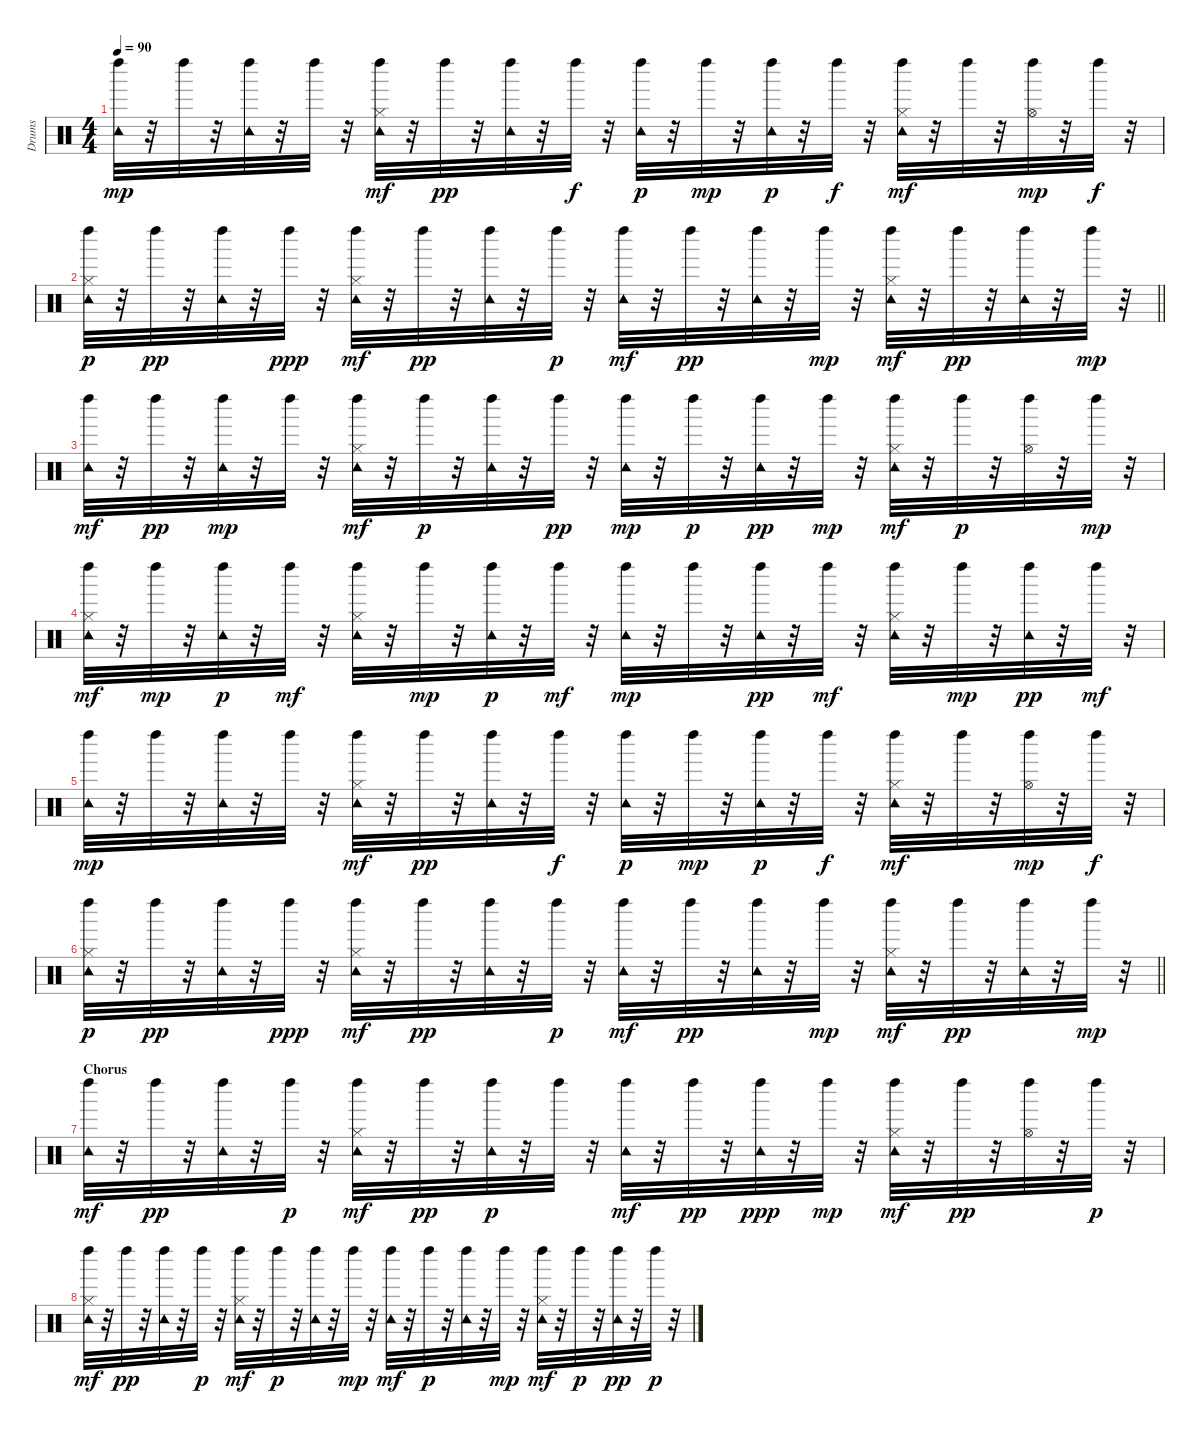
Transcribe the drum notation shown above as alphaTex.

\track ("Drums" "Drums") {instrument percussion}
\staff {score}
\articulation defaults
\ts (4 4)
\tempo 90
\clef neutral
\ks c
("Tambourine (hit)" "Left Maraca (hit)").32{dy mp} r.32 "Left Maraca (hit)".32 r.32 ("Tambourine (hit)" "Left Maraca (hit)").32 r.32 "Left Maraca (hit)".32 r.32 ("Hi-Hat (closed)" "Tambourine (hit)" "Left Maraca (hit)").32{dy mf} r.32 "Left Maraca (hit)".32{dy pp} r.32 ("Tambourine (hit)" "Left Maraca (hit)").32 r.32 "Left Maraca (hit)".32{dy f} r.32 ("Tambourine (hit)" "Left Maraca (hit)").32{dy p} r.32 "Left Maraca (hit)".32{dy mp} r.32 ("Tambourine (hit)" "Left Maraca (hit)").32{dy p} r.32 "Left Maraca (hit)".32{dy f} r.32 ("Hi-Hat (closed)" "Tambourine (hit)" "Left Maraca (hit)").32{dy mf} r.32 "Left Maraca (hit)".32 r.32 ("Hi-Hat (open)" "Left Maraca (hit)").32{dy mp} r.32 "Left Maraca (hit)".32{dy f} r.32 |
\barLineRight lightlight
("Hi-Hat (closed)" "Tambourine (hit)" "Left Maraca (hit)").32{dy p} r.32 "Left Maraca (hit)".32{dy pp} r.32 ("Tambourine (hit)" "Left Maraca (hit)").32 r.32 "Left Maraca (hit)".32{dy ppp} r.32 ("Hi-Hat (closed)" "Tambourine (hit)" "Left Maraca (hit)").32{dy mf} r.32 "Left Maraca (hit)".32{dy pp} r.32 ("Tambourine (hit)" "Left Maraca (hit)").32 r.32 "Left Maraca (hit)".32{dy p} r.32 ("Tambourine (hit)" "Left Maraca (hit)").32{dy mf} r.32 "Left Maraca (hit)".32{dy pp} r.32 ("Tambourine (hit)" "Left Maraca (hit)").32 r.32 "Left Maraca (hit)".32{dy mp} r.32 ("Hi-Hat (closed)" "Tambourine (hit)" "Left Maraca (hit)").32{dy mf} r.32 "Left Maraca (hit)".32{dy pp} r.32 ("Tambourine (hit)" "Left Maraca (hit)").32 r.32 "Left Maraca (hit)".32{dy mp} r.32 |
("Tambourine (hit)" "Left Maraca (hit)").32{dy mf} r.32 "Left Maraca (hit)".32{dy pp} r.32 ("Tambourine (hit)" "Left Maraca (hit)").32{dy mp} r.32 "Left Maraca (hit)".32 r.32 ("Hi-Hat (closed)" "Tambourine (hit)" "Left Maraca (hit)").32{dy mf} r.32 "Left Maraca (hit)".32{dy p} r.32 ("Tambourine (hit)" "Left Maraca (hit)").32 r.32 "Left Maraca (hit)".32{dy pp} r.32 ("Tambourine (hit)" "Left Maraca (hit)").32{dy mp} r.32 "Left Maraca (hit)".32{dy p} r.32 ("Tambourine (hit)" "Left Maraca (hit)").32{dy pp} r.32 "Left Maraca (hit)".32{dy mp} r.32 ("Hi-Hat (closed)" "Tambourine (hit)" "Left Maraca (hit)").32{dy mf} r.32 "Left Maraca (hit)".32{dy p} r.32 ("Hi-Hat (open)" "Left Maraca (hit)").32 r.32 "Left Maraca (hit)".32{dy mp} r.32 |
("Hi-Hat (closed)" "Tambourine (hit)" "Left Maraca (hit)").32{dy mf} r.32 "Left Maraca (hit)".32{dy mp} r.32 ("Tambourine (hit)" "Left Maraca (hit)").32{dy p} r.32 "Left Maraca (hit)".32{dy mf} r.32 ("Hi-Hat (closed)" "Tambourine (hit)" "Left Maraca (hit)").32 r.32 "Left Maraca (hit)".32{dy mp} r.32 ("Tambourine (hit)" "Left Maraca (hit)").32{dy p} r.32 "Left Maraca (hit)".32{dy mf} r.32 ("Tambourine (hit)" "Left Maraca (hit)").32{dy mp} r.32 "Left Maraca (hit)".32 r.32 ("Tambourine (hit)" "Left Maraca (hit)").32{dy pp} r.32 "Left Maraca (hit)".32{dy mf} r.32 ("Hi-Hat (closed)" "Tambourine (hit)" "Left Maraca (hit)").32 r.32 "Left Maraca (hit)".32{dy mp} r.32 ("Tambourine (hit)" "Left Maraca (hit)").32{dy pp} r.32 "Left Maraca (hit)".32{dy mf} r.32 |
("Tambourine (hit)" "Left Maraca (hit)").32{dy mp} r.32 "Left Maraca (hit)".32 r.32 ("Tambourine (hit)" "Left Maraca (hit)").32 r.32 "Left Maraca (hit)".32 r.32 ("Hi-Hat (closed)" "Tambourine (hit)" "Left Maraca (hit)").32{dy mf} r.32 "Left Maraca (hit)".32{dy pp} r.32 ("Tambourine (hit)" "Left Maraca (hit)").32 r.32 "Left Maraca (hit)".32{dy f} r.32 ("Tambourine (hit)" "Left Maraca (hit)").32{dy p} r.32 "Left Maraca (hit)".32{dy mp} r.32 ("Tambourine (hit)" "Left Maraca (hit)").32{dy p} r.32 "Left Maraca (hit)".32{dy f} r.32 ("Hi-Hat (closed)" "Tambourine (hit)" "Left Maraca (hit)").32{dy mf} r.32 "Left Maraca (hit)".32 r.32 ("Hi-Hat (open)" "Left Maraca (hit)").32{dy mp} r.32 "Left Maraca (hit)".32{dy f} r.32 |
\barLineRight lightlight
("Hi-Hat (closed)" "Tambourine (hit)" "Left Maraca (hit)").32{dy p} r.32 "Left Maraca (hit)".32{dy pp} r.32 ("Tambourine (hit)" "Left Maraca (hit)").32 r.32 "Left Maraca (hit)".32{dy ppp} r.32 ("Hi-Hat (closed)" "Tambourine (hit)" "Left Maraca (hit)").32{dy mf} r.32 "Left Maraca (hit)".32{dy pp} r.32 ("Tambourine (hit)" "Left Maraca (hit)").32 r.32 "Left Maraca (hit)".32{dy p} r.32 ("Tambourine (hit)" "Left Maraca (hit)").32{dy mf} r.32 "Left Maraca (hit)".32{dy pp} r.32 ("Tambourine (hit)" "Left Maraca (hit)").32 r.32 "Left Maraca (hit)".32{dy mp} r.32 ("Hi-Hat (closed)" "Tambourine (hit)" "Left Maraca (hit)").32{dy mf} r.32 "Left Maraca (hit)".32{dy pp} r.32 ("Tambourine (hit)" "Left Maraca (hit)").32 r.32 "Left Maraca (hit)".32{dy mp} r.32 |
\section ("" "Chorus")
("Tambourine (hit)" "Left Maraca (hit)").32{dy mf} r.32 "Left Maraca (hit)".32{dy pp} r.32 ("Tambourine (hit)" "Left Maraca (hit)").32 r.32 "Left Maraca (hit)".32{dy p} r.32 ("Hi-Hat (closed)" "Tambourine (hit)" "Left Maraca (hit)").32{dy mf} r.32 "Left Maraca (hit)".32{dy pp} r.32 ("Tambourine (hit)" "Left Maraca (hit)").32{dy p} r.32 "Left Maraca (hit)".32 r.32 ("Tambourine (hit)" "Left Maraca (hit)").32{dy mf} r.32 "Left Maraca (hit)".32{dy pp} r.32 ("Tambourine (hit)" "Left Maraca (hit)").32{dy ppp} r.32 "Left Maraca (hit)".32{dy mp} r.32 ("Hi-Hat (closed)" "Tambourine (hit)" "Left Maraca (hit)").32{dy mf} r.32 "Left Maraca (hit)".32{dy pp} r.32 ("Hi-Hat (open)" "Left Maraca (hit)").32 r.32 "Left Maraca (hit)".32{dy p} r.32 |
("Hi-Hat (closed)" "Tambourine (hit)" "Left Maraca (hit)").32{dy mf} r.32 "Left Maraca (hit)".32{dy pp} r.32 ("Tambourine (hit)" "Left Maraca (hit)").32 r.32 "Left Maraca (hit)".32{dy p} r.32 ("Hi-Hat (closed)" "Tambourine (hit)" "Left Maraca (hit)").32{dy mf} r.32 "Left Maraca (hit)".32{dy p} r.32 ("Tambourine (hit)" "Left Maraca (hit)").32 r.32 "Left Maraca (hit)".32{dy mp} r.32 ("Tambourine (hit)" "Left Maraca (hit)").32{dy mf} r.32 "Left Maraca (hit)".32{dy p} r.32 ("Tambourine (hit)" "Left Maraca (hit)").32 r.32 "Left Maraca (hit)".32{dy mp} r.32 ("Hi-Hat (closed)" "Tambourine (hit)" "Left Maraca (hit)").32{dy mf} r.32 "Left Maraca (hit)".32{dy p} r.32 ("Tambourine (hit)" "Left Maraca (hit)").32{dy pp} r.32 "Left Maraca (hit)".32{dy p} r.32
